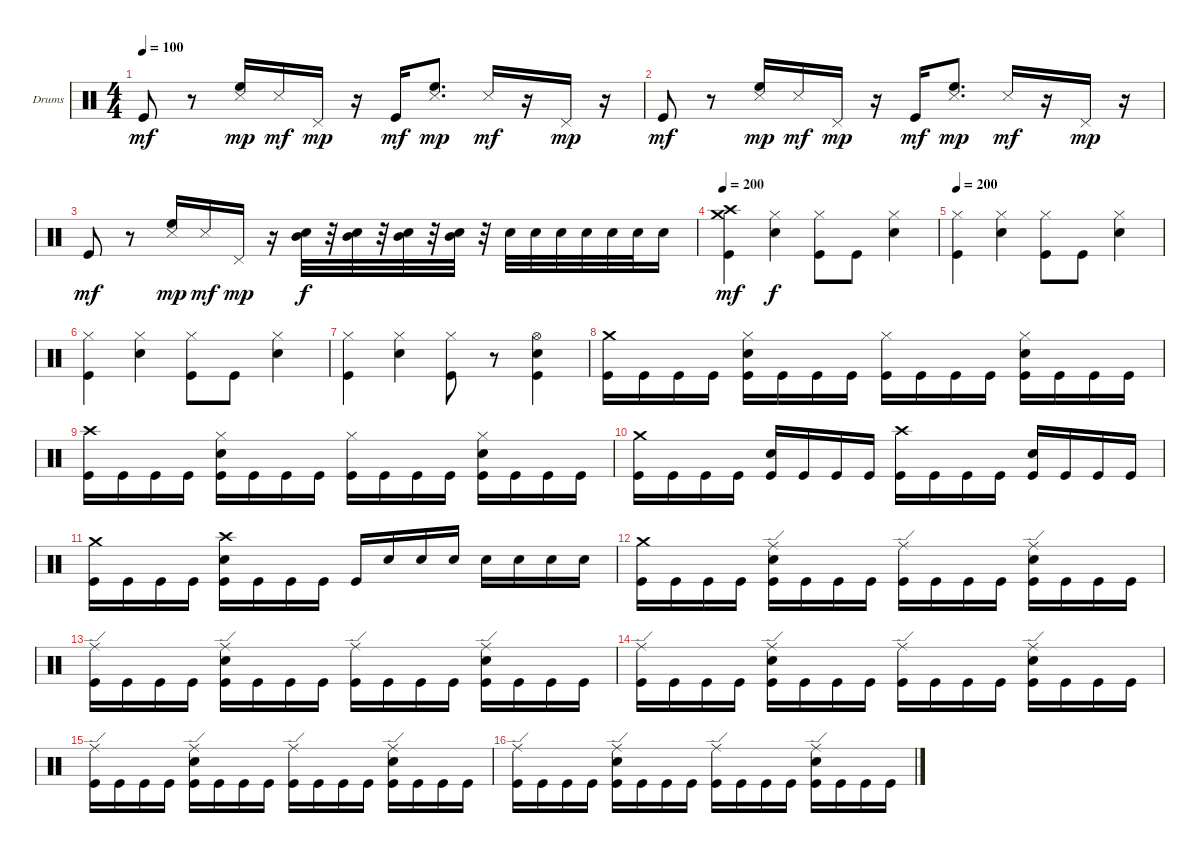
\bracketExtendMode groupsimilarinstruments
\firstSystemTrackNameOrientation horizontal
\otherSystemsTrackNameOrientation horizontal
\track ("Drumkit" "Drums") {instrument percussion}
\staff {score}
\articulation defaults
\ts (4 4)
\tempo 100
\clef neutral
\ks c "Kick (hit)".8{dy mf}
r.8 ("High Floor Tom (hit)" "Snare (side stick) 3").16{dy mp} "Snare (side stick) 3".16{dy mf} "Pedal Hi-Hat (hit)".16{dy mp} r.16 "Kick (hit)".16{dy mf} ("High Floor Tom (hit)" "Snare (side stick) 3").8{d dy mp} "Snare (side stick) 3".16{dy mf} r.16 "Pedal Hi-Hat (hit)".16{dy mp} r.16 |
"Kick (hit)".8{dy mf} r.8 ("High Floor Tom (hit)" "Snare (side stick) 3").16{dy mp} "Snare (side stick) 3".16{dy mf} "Pedal Hi-Hat (hit)".16{dy mp} r.16 "Kick (hit)".16{dy mf} ("High Floor Tom (hit)" "Snare (side stick) 3").8{d dy mp} "Snare (side stick) 3".16{dy mf} r.16 "Pedal Hi-Hat (hit)".16{dy mp} r.16 |
"Kick (hit)".8{dy mf} r.8 ("High Floor Tom (hit)" "Snare (side stick) 3").16{dy mp} "Snare (side stick) 3".16{dy mf} "Pedal Hi-Hat (hit)".16{dy mp} r.16 ("Snare (hit) 2" "Mid Tom (hit)").32{dy f} r.32 ("Snare (hit) 2" "Mid Tom (hit)").32 r.32 ("Snare (hit) 2" "Mid Tom (hit)").32 r.32 ("Snare (hit) 2" "Mid Tom (hit)").32 r.32 "Snare (hit) 2".32 "Snare (hit) 2".32 "Snare (hit) 2".32 "Snare (hit) 2".32 "Snare (hit) 2".32 "Snare (hit) 2".32 "Snare (hit) 2".16 |
\tempo 200
("Crash medium (hit)" "Crash high (hit)" "Kick (hit)").4{dy mf} ("Hi-Hat (closed)" "Snare (hit) 2").4{dy f} ("Hi-Hat (closed)" "Kick (hit)").8 "Kick (hit)".8 ("Hi-Hat (closed)" "Snare (hit) 2").4 |
\tempo 200
("Hi-Hat (closed)" "Kick (hit)").4 ("Hi-Hat (closed)" "Snare (hit) 2").4 ("Hi-Hat (closed)" "Kick (hit)").8 "Kick (hit)".8 ("Hi-Hat (closed)" "Snare (hit) 2").4 |
("Hi-Hat (closed)" "Kick (hit)").4 ("Hi-Hat (closed)" "Snare (hit) 2").4 ("Hi-Hat (closed)" "Kick (hit)").8 "Kick (hit)".8 ("Hi-Hat (closed)" "Snare (hit) 2").4 |
("Hi-Hat (closed)" "Kick (hit)").4 ("Hi-Hat (closed)" "Snare (hit) 2").4 ("Hi-Hat (closed)" "Kick (hit)").8 r.8 ("Hi-Hat (open)" "Snare (hit) 2" "Kick (hit)").4 |
("Crash medium (hit)" "Kick (hit)").16 "Kick (hit)".16 "Kick (hit)".16 "Kick (hit)".16 ("Hi-Hat (closed)" "Snare (hit) 2" "Kick (hit)").16 "Kick (hit)".16 "Kick (hit)".16 "Kick (hit)".16 ("Hi-Hat (closed)" "Kick (hit)").16 "Kick (hit)".16 "Kick (hit)".16 "Kick (hit)".16 ("Hi-Hat (closed)" "Snare (hit) 2" "Kick (hit)").16 "Kick (hit)".16 "Kick (hit)".16 "Kick (hit)".16 |
("Crash high (hit)" "Kick (hit)").16 "Kick (hit)".16 "Kick (hit)".16 "Kick (hit)".16 ("Hi-Hat (closed)" "Snare (hit) 2" "Kick (hit)").16 "Kick (hit)".16 "Kick (hit)".16 "Kick (hit)".16 ("Hi-Hat (closed)" "Kick (hit)").16 "Kick (hit)".16 "Kick (hit)".16 "Kick (hit)".16 ("Hi-Hat (closed)" "Snare (hit) 2" "Kick (hit)").16 "Kick (hit)".16 "Kick (hit)".16 "Kick (hit)".16 |
("Crash medium (hit)" "Kick (hit)").16 "Kick (hit)".16 "Kick (hit)".16 "Kick (hit)".16 ("Snare (hit) 2" "Kick (hit)").16 "Kick (hit)".16 "Kick (hit)".16 "Kick (hit)".16 ("Crash high (hit)" "Kick (hit)").16 "Kick (hit)".16 "Kick (hit)".16 "Kick (hit)".16 ("Snare (hit) 2" "Kick (hit)").16 "Kick (hit)".16 "Kick (hit)".16 "Kick (hit)".16 |
("Crash medium (hit)" "Kick (hit)").16 "Kick (hit)".16 "Kick (hit)".16 "Kick (hit)".16 ("Crash high (hit)" "Snare (hit) 2" "Kick (hit)").16 "Kick (hit)".16 "Kick (hit)".16 "Kick (hit)".16 "Kick (hit)".16 "Snare (hit) 2".16 "Snare (hit) 2".16 "Snare (hit) 2".16 "Snare (hit) 2".16 "Snare (hit) 2".16 "Snare (hit) 2".16 "Snare (hit) 2".16 |
("Crash medium (hit)" "Kick (hit)").16 "Kick (hit)".16 "Kick (hit)".16 "Kick (hit)".16 ("Ride (edge)" "Snare (hit) 2" "Kick (hit)").16 "Kick (hit)".16 "Kick (hit)".16 "Kick (hit)".16 ("Ride (edge)" "Kick (hit)").16 "Kick (hit)".16 "Kick (hit)".16 "Kick (hit)".16 ("Ride (edge)" "Snare (hit) 2" "Kick (hit)").16 "Kick (hit)".16 "Kick (hit)".16 "Kick (hit)".16 |
("Ride (edge)" "Kick (hit)").16 "Kick (hit)".16 "Kick (hit)".16 "Kick (hit)".16 ("Ride (edge)" "Snare (hit) 2" "Kick (hit)").16 "Kick (hit)".16 "Kick (hit)".16 "Kick (hit)".16 ("Ride (edge)" "Kick (hit)").16 "Kick (hit)".16 "Kick (hit)".16 "Kick (hit)".16 ("Ride (edge)" "Snare (hit) 2" "Kick (hit)").16 "Kick (hit)".16 "Kick (hit)".16 "Kick (hit)".16 |
("Ride (edge)" "Kick (hit)").16 "Kick (hit)".16 "Kick (hit)".16 "Kick (hit)".16 ("Ride (edge)" "Snare (hit) 2" "Kick (hit)").16 "Kick (hit)".16 "Kick (hit)".16 "Kick (hit)".16 ("Ride (edge)" "Kick (hit)").16 "Kick (hit)".16 "Kick (hit)".16 "Kick (hit)".16 ("Ride (edge)" "Snare (hit) 2" "Kick (hit)").16 "Kick (hit)".16 "Kick (hit)".16 "Kick (hit)".16 |
("Ride (edge)" "Kick (hit)").16 "Kick (hit)".16 "Kick (hit)".16 "Kick (hit)".16 ("Ride (edge)" "Snare (hit) 2" "Kick (hit)").16 "Kick (hit)".16 "Kick (hit)".16 "Kick (hit)".16 ("Ride (edge)" "Kick (hit)").16 "Kick (hit)".16 "Kick (hit)".16 "Kick (hit)".16 ("Ride (edge)" "Snare (hit) 2" "Kick (hit)").16 "Kick (hit)".16 "Kick (hit)".16 "Kick (hit)".16 |
("Ride (edge)" "Kick (hit)").16 "Kick (hit)".16 "Kick (hit)".16 "Kick (hit)".16 ("Ride (edge)" "Snare (hit) 2" "Kick (hit)").16 "Kick (hit)".16 "Kick (hit)".16 "Kick (hit)".16 ("Ride (edge)" "Kick (hit)").16 "Kick (hit)".16 "Kick (hit)".16 "Kick (hit)".16 ("Ride (edge)" "Snare (hit) 2" "Kick (hit)").16 "Kick (hit)".16 "Kick (hit)".16 "Kick (hit)".16
